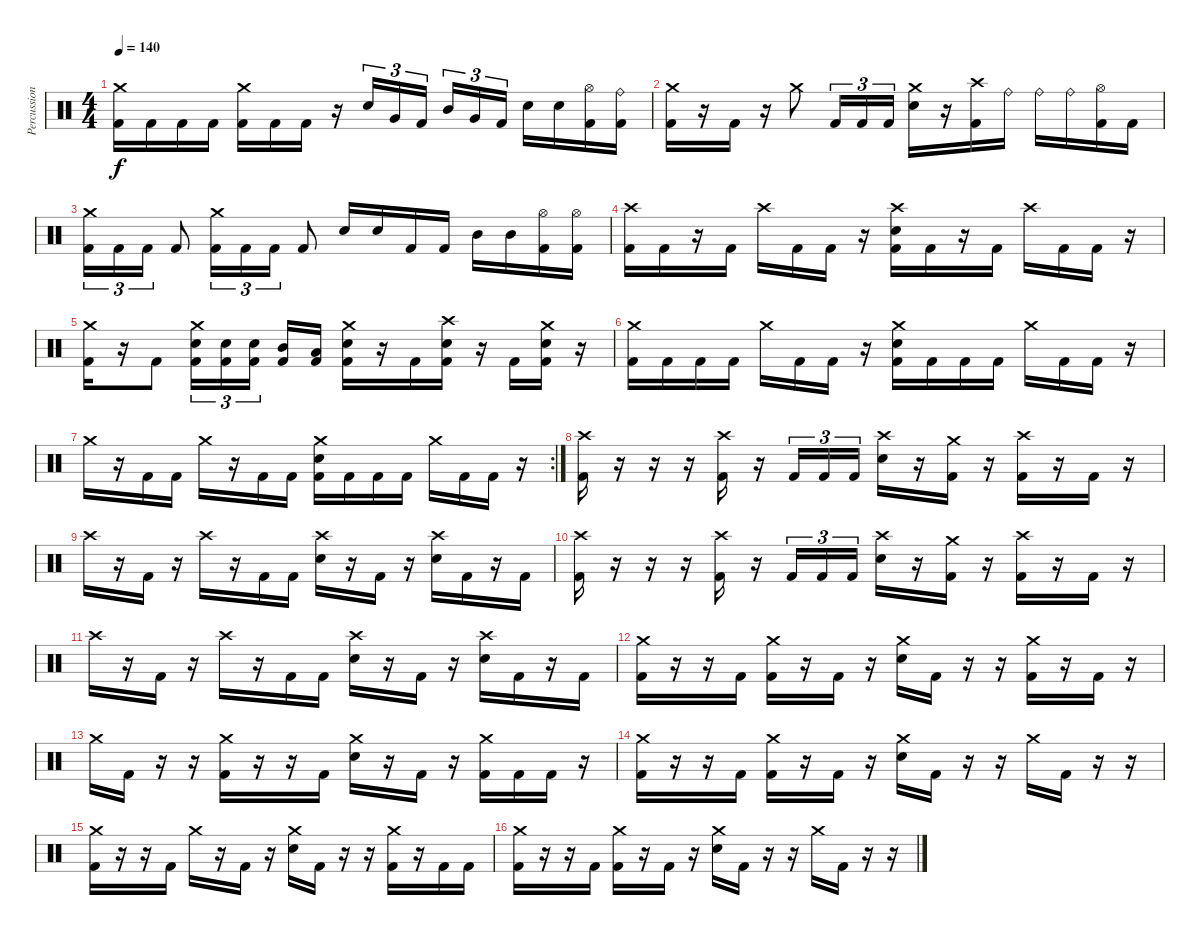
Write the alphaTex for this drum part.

\track ("Percussion" "Percussion") {instrument percussion}
\staff {score}
\articulation defaults
\ts (4 4)
\tempo 140
\clef neutral
\ks c
("Crash medium (hit)" "Kick (hit) 2").16{dy f} "Kick (hit) 2".16 "Kick (hit) 2".16 "Kick (hit) 2".16 ("Crash medium (hit)" "Kick (hit) 2").16 "Kick (hit) 2".16 "Kick (hit) 2".16 r.16 "Electric Snare (hit)".16{tu (3 2)} "Very Low Tom (hit)".16{tu (3 2)} "Kick (hit) 2".16{tu (3 2)} "Mid Tom (hit)".16{tu (3 2)} "Very Low Tom (hit)".16{tu (3 2)} "Kick (hit) 2".16{tu (3 2)} "Electric Snare (hit)".16 "Electric Snare (hit)".16 ("Hi-Hat (open)" "Kick (hit) 2").16 ("Ride (bell)" "Kick (hit) 2").16 |
("Crash medium (hit)" "Kick (hit) 2").16 r.16 "Kick (hit) 2".16 r.16 "Crash medium (hit)".8 "Kick (hit) 2".16{tu (3 2)} "Kick (hit) 2".16{tu (3 2)} "Kick (hit) 2".16{tu (3 2)} ("Crash medium (hit)" "Electric Snare (hit)").16 r.16 ("Crash high (hit)" "Kick (hit) 2").16 "Ride (bell)".16 "Ride (bell)".16 "Ride (bell)".16 ("Hi-Hat (open)" "Kick (hit) 2").16 "Kick (hit) 2".16 |
("Crash medium (hit)" "Kick (hit) 2").16{tu (3 2)} "Kick (hit) 2".16{tu (3 2)} "Kick (hit) 2".16{tu (3 2)} "Kick (hit) 2".8 ("Crash medium (hit)" "Kick (hit) 2").16{tu (3 2)} "Kick (hit) 2".16{tu (3 2)} "Kick (hit) 2".16{tu (3 2)} "Kick (hit) 2".8 "Electric Snare (hit)".16 "Electric Snare (hit)".16 "Kick (hit) 2".16 "Kick (hit) 2".16 "Mid Tom (hit)".16 "Mid Tom (hit)".16 ("Hi-Hat (open)" "Kick (hit) 2").16 ("Hi-Hat (open)" "Kick (hit) 2").16 |
("Crash high (hit)" "Kick (hit) 2").16 "Kick (hit) 2".16 r.16 "Kick (hit) 2".16 "Crash high (hit)".16 "Kick (hit) 2".16 "Kick (hit) 2".16 r.16 ("Crash high (hit)" "Electric Snare (hit)" "Kick (hit) 2").16 "Kick (hit) 2".16 r.16 "Kick (hit) 2".16 "Crash high (hit)".16 "Kick (hit) 2".16 "Kick (hit) 2".16 r.16 |
("Crash medium (hit)" "Kick (hit) 2").16 r.16 "Kick (hit) 2".8 ("Crash medium (hit)" "Electric Snare (hit)" "Kick (hit) 2").16{tu (3 2)} ("Electric Snare (hit)" "Kick (hit) 2").16{tu (3 2)} ("Electric Snare (hit)" "Kick (hit) 2").16{tu (3 2)} ("Mid Tom (hit)" "Kick (hit) 2").16 ("Low Tom (hit)" "Kick (hit) 2").16 ("Crash medium (hit)" "Electric Snare (hit)" "Kick (hit) 2").16 r.16 "Kick (hit) 2".16 ("Crash high (hit)" "Electric Snare (hit)" "Kick (hit) 2").16 r.16 "Kick (hit) 2".16 ("Crash medium (hit)" "Electric Snare (hit)" "Kick (hit) 2").16 r.16 |
("Crash medium (hit)" "Kick (hit) 2").16 "Kick (hit) 2".16 "Kick (hit) 2".16 "Kick (hit) 2".16 "Crash medium (hit)".16 "Kick (hit) 2".16 "Kick (hit) 2".16 r.16 ("Crash medium (hit)" "Electric Snare (hit)" "Kick (hit) 2").16 "Kick (hit) 2".16 "Kick (hit) 2".16 "Kick (hit) 2".16 "Crash medium (hit)".16 "Kick (hit) 2".16 "Kick (hit) 2".16 r.16 |
\rc 2 "Crash medium (hit)".16
r.16 "Kick (hit) 2".16 "Kick (hit) 2".16 "Crash medium (hit)".16 r.16 "Kick (hit) 2".16 "Kick (hit) 2".16 ("Crash medium (hit)" "Electric Snare (hit)" "Kick (hit) 2").16 "Kick (hit) 2".16 "Kick (hit) 2".16 "Kick (hit) 2".16 "Crash medium (hit)".16 "Kick (hit) 2".16 "Kick (hit) 2".16 r.16 |
("Crash high (hit)" "Kick (hit) 2").16 r.16 r.16 r.16 ("Crash high (hit)" "Kick (hit) 2").16 r.16 "Kick (hit) 2".16{tu (3 2)} "Kick (hit) 2".16{tu (3 2)} "Kick (hit) 2".16{tu (3 2)} ("Crash high (hit)" "Electric Snare (hit)").16 r.16 ("Crash medium (hit)" "Kick (hit) 2").16 r.16 ("Crash high (hit)" "Kick (hit) 2").16 r.16 "Kick (hit) 2".16 r.16 |
"Crash high (hit)".16 r.16 "Kick (hit) 2".16 r.16 "Crash high (hit)".16 r.16 "Kick (hit) 2".16 "Kick (hit) 2".16 ("Crash high (hit)" "Electric Snare (hit)").16 r.16 "Kick (hit) 2".16 r.16 ("Crash high (hit)" "Electric Snare (hit)").16 "Kick (hit) 2".16 r.16 "Kick (hit) 2".16 |
("Crash high (hit)" "Kick (hit) 2").16 r.16 r.16 r.16 ("Crash high (hit)" "Kick (hit) 2").16 r.16 "Kick (hit) 2".16{tu (3 2)} "Kick (hit) 2".16{tu (3 2)} "Kick (hit) 2".16{tu (3 2)} ("Crash high (hit)" "Electric Snare (hit)").16 r.16 ("Crash medium (hit)" "Kick (hit) 2").16 r.16 ("Crash high (hit)" "Kick (hit) 2").16 r.16 "Kick (hit) 2".16 r.16 |
"Crash high (hit)".16 r.16 "Kick (hit) 2".16 r.16 "Crash high (hit)".16 r.16 "Kick (hit) 2".16 "Kick (hit) 2".16 ("Crash high (hit)" "Electric Snare (hit)").16 r.16 "Kick (hit) 2".16 r.16 ("Crash high (hit)" "Electric Snare (hit)").16 "Kick (hit) 2".16 r.16 "Kick (hit) 2".16 |
("Crash medium (hit)" "Kick (hit) 2").16 r.16 r.16 "Kick (hit) 2".16 ("Crash medium (hit)" "Kick (hit) 2").16 r.16 "Kick (hit) 2".16 r.16 ("Crash medium (hit)" "Electric Snare (hit)").16 "Kick (hit) 2".16 r.16 r.16 ("Crash medium (hit)" "Kick (hit) 2").16 r.16 "Kick (hit) 2".16 r.16 |
"Crash medium (hit)".16 "Kick (hit) 2".16 r.16 r.16 ("Crash medium (hit)" "Kick (hit) 2").16 r.16 r.16 "Kick (hit) 2".16 ("Crash medium (hit)" "Electric Snare (hit)").16 r.16 "Kick (hit) 2".16 r.16 ("Crash medium (hit)" "Kick (hit) 2").16 "Kick (hit) 2".16 "Kick (hit) 2".16 r.16 |
("Crash medium (hit)" "Kick (hit) 2").16 r.16 r.16 "Kick (hit) 2".16 ("Crash medium (hit)" "Kick (hit) 2").16 r.16 "Kick (hit) 2".16 r.16 ("Crash medium (hit)" "Electric Snare (hit)").16 "Kick (hit) 2".16 r.16 r.16 "Crash medium (hit)".16 "Kick (hit) 2".16 r.16 r.16 |
("Crash medium (hit)" "Kick (hit) 2").16 r.16 r.16 "Kick (hit) 2".16 "Crash medium (hit)".16 r.16 "Kick (hit) 2".16 r.16 ("Crash medium (hit)" "Electric Snare (hit)").16 "Kick (hit) 2".16 r.16 r.16 ("Crash medium (hit)" "Kick (hit) 2").16 r.16 "Kick (hit) 2".16 "Kick (hit) 2".16 |
("Crash medium (hit)" "Kick (hit) 2").16 r.16 r.16 "Kick (hit) 2".16 ("Crash medium (hit)" "Kick (hit) 2").16 r.16 "Kick (hit) 2".16 r.16 ("Crash medium (hit)" "Electric Snare (hit)").16 "Kick (hit) 2".16 r.16 r.16 "Crash medium (hit)".16 "Kick (hit) 2".16 r.16 r.16
